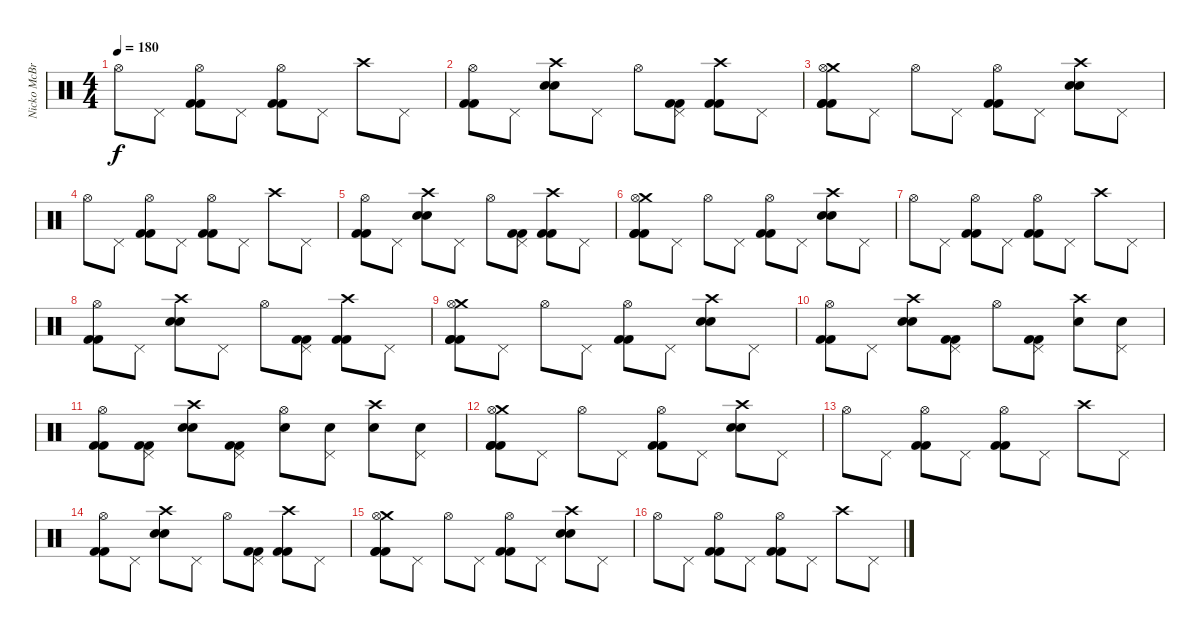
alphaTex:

\track ("Nicko McBrain" "Nicko McBr") {instrument percussion}
\staff {score}
\articulation defaults
\ts (4 4)
\tempo 180
\clef neutral
\ks c "Hi-Hat (open)".8{dy f} "Pedal Hi-Hat (hit)".8
("Hi-Hat (open)" "Kick (hit) 2" "Kick (hit) 2").8 "Pedal Hi-Hat (hit)".8 ("Hi-Hat (open)" "Kick (hit) 2" "Kick (hit) 2").8 "Pedal Hi-Hat (hit)".8 "Crash high (hit)".8 "Pedal Hi-Hat (hit)".8 |
("Hi-Hat (open)" "Kick (hit) 2" "Kick (hit) 2").8 "Pedal Hi-Hat (hit)".8 ("Crash high (hit)" "Snare (hit) 2" "Snare (hit) 2").8 "Pedal Hi-Hat (hit)".8 "Hi-Hat (open)".8 ("Pedal Hi-Hat (hit)" "Kick (hit) 2" "Kick (hit) 2").8 ("Crash high (hit)" "Kick (hit) 2" "Kick (hit) 2").8 "Pedal Hi-Hat (hit)".8 |
("Crash medium (hit)" "Hi-Hat (open)" "Kick (hit) 2" "Kick (hit) 2" "Kick (hit) 2").8 "Pedal Hi-Hat (hit)".8 "Hi-Hat (open)".8 "Pedal Hi-Hat (hit)".8 ("Hi-Hat (open)" "Kick (hit) 2" "Kick (hit) 2").8 "Pedal Hi-Hat (hit)".8 ("Crash high (hit)" "Snare (hit) 2" "Snare (hit) 2").8 "Pedal Hi-Hat (hit)".8 |
"Hi-Hat (open)".8 "Pedal Hi-Hat (hit)".8 ("Hi-Hat (open)" "Kick (hit) 2" "Kick (hit) 2").8 "Pedal Hi-Hat (hit)".8 ("Hi-Hat (open)" "Kick (hit) 2" "Kick (hit) 2").8 "Pedal Hi-Hat (hit)".8 "Crash high (hit)".8 "Pedal Hi-Hat (hit)".8 |
("Hi-Hat (open)" "Kick (hit) 2" "Kick (hit) 2").8 "Pedal Hi-Hat (hit)".8 ("Crash high (hit)" "Snare (hit) 2" "Snare (hit) 2").8 "Pedal Hi-Hat (hit)".8 "Hi-Hat (open)".8 ("Pedal Hi-Hat (hit)" "Kick (hit) 2" "Kick (hit) 2").8 ("Crash high (hit)" "Kick (hit) 2" "Kick (hit) 2").8 "Pedal Hi-Hat (hit)".8 |
("Crash medium (hit)" "Hi-Hat (open)" "Kick (hit) 2" "Kick (hit) 2" "Kick (hit) 2").8 "Pedal Hi-Hat (hit)".8 "Hi-Hat (open)".8 "Pedal Hi-Hat (hit)".8 ("Hi-Hat (open)" "Kick (hit) 2" "Kick (hit) 2").8 "Pedal Hi-Hat (hit)".8 ("Crash high (hit)" "Snare (hit) 2" "Snare (hit) 2").8 "Pedal Hi-Hat (hit)".8 |
"Hi-Hat (open)".8 "Pedal Hi-Hat (hit)".8 ("Hi-Hat (open)" "Kick (hit) 2" "Kick (hit) 2").8 "Pedal Hi-Hat (hit)".8 ("Hi-Hat (open)" "Kick (hit) 2" "Kick (hit) 2").8 "Pedal Hi-Hat (hit)".8 "Crash high (hit)".8 "Pedal Hi-Hat (hit)".8 |
("Hi-Hat (open)" "Kick (hit) 2" "Kick (hit) 2").8 "Pedal Hi-Hat (hit)".8 ("Crash high (hit)" "Snare (hit) 2" "Snare (hit) 2").8 "Pedal Hi-Hat (hit)".8 "Hi-Hat (open)".8 ("Pedal Hi-Hat (hit)" "Kick (hit) 2" "Kick (hit) 2").8 ("Crash high (hit)" "Kick (hit) 2" "Kick (hit) 2").8 "Pedal Hi-Hat (hit)".8 |
("Crash medium (hit)" "Hi-Hat (open)" "Kick (hit) 2" "Kick (hit) 2" "Kick (hit) 2").8 "Pedal Hi-Hat (hit)".8 "Hi-Hat (open)".8 "Pedal Hi-Hat (hit)".8 ("Hi-Hat (open)" "Kick (hit) 2" "Kick (hit) 2").8 "Pedal Hi-Hat (hit)".8 ("Crash high (hit)" "Snare (hit) 2" "Snare (hit) 2").8 "Pedal Hi-Hat (hit)".8 |
("Hi-Hat (open)" "Kick (hit) 2" "Kick (hit) 2").8 "Pedal Hi-Hat (hit)".8 ("Crash high (hit)" "Snare (hit) 2" "Snare (hit) 2").8 ("Pedal Hi-Hat (hit)" "Kick (hit) 2" "Kick (hit) 2").8 "Hi-Hat (open)".8 ("Pedal Hi-Hat (hit)" "Kick (hit) 2" "Kick (hit) 2").8 ("Crash high (hit)" "Snare (hit) 2").8 ("Pedal Hi-Hat (hit)" "Snare (hit) 2").8 |
("Hi-Hat (open)" "Kick (hit) 2" "Kick (hit) 2").8 ("Pedal Hi-Hat (hit)" "Kick (hit) 2" "Kick (hit) 2").8 ("Crash high (hit)" "Snare (hit) 2" "Snare (hit) 2").8 ("Pedal Hi-Hat (hit)" "Kick (hit) 2" "Kick (hit) 2").8 ("Hi-Hat (open)" "Snare (hit) 2").8 ("Pedal Hi-Hat (hit)" "Snare (hit) 2").8 ("Crash high (hit)" "Snare (hit) 2").8 ("Pedal Hi-Hat (hit)" "Snare (hit) 2").8 |
("Crash medium (hit)" "Hi-Hat (open)" "Kick (hit) 2" "Kick (hit) 2" "Kick (hit) 2").8 "Pedal Hi-Hat (hit)".8 "Hi-Hat (open)".8 "Pedal Hi-Hat (hit)".8 ("Hi-Hat (open)" "Kick (hit) 2" "Kick (hit) 2").8 "Pedal Hi-Hat (hit)".8 ("Crash high (hit)" "Snare (hit) 2" "Snare (hit) 2").8 "Pedal Hi-Hat (hit)".8 |
"Hi-Hat (open)".8 "Pedal Hi-Hat (hit)".8 ("Hi-Hat (open)" "Kick (hit) 2" "Kick (hit) 2").8 "Pedal Hi-Hat (hit)".8 ("Hi-Hat (open)" "Kick (hit) 2" "Kick (hit) 2").8 "Pedal Hi-Hat (hit)".8 "Crash high (hit)".8 "Pedal Hi-Hat (hit)".8 |
("Hi-Hat (open)" "Kick (hit) 2" "Kick (hit) 2").8 "Pedal Hi-Hat (hit)".8 ("Crash high (hit)" "Snare (hit) 2" "Snare (hit) 2").8 "Pedal Hi-Hat (hit)".8 "Hi-Hat (open)".8 ("Pedal Hi-Hat (hit)" "Kick (hit) 2" "Kick (hit) 2").8 ("Crash high (hit)" "Kick (hit) 2" "Kick (hit) 2").8 "Pedal Hi-Hat (hit)".8 |
("Crash medium (hit)" "Hi-Hat (open)" "Kick (hit) 2" "Kick (hit) 2" "Kick (hit) 2").8 "Pedal Hi-Hat (hit)".8 "Hi-Hat (open)".8 "Pedal Hi-Hat (hit)".8 ("Hi-Hat (open)" "Kick (hit) 2" "Kick (hit) 2").8 "Pedal Hi-Hat (hit)".8 ("Crash high (hit)" "Snare (hit) 2" "Snare (hit) 2").8 "Pedal Hi-Hat (hit)".8 |
"Hi-Hat (open)".8 "Pedal Hi-Hat (hit)".8 ("Hi-Hat (open)" "Kick (hit) 2" "Kick (hit) 2").8 "Pedal Hi-Hat (hit)".8 ("Hi-Hat (open)" "Kick (hit) 2" "Kick (hit) 2").8 "Pedal Hi-Hat (hit)".8 "Crash high (hit)".8 "Pedal Hi-Hat (hit)".8
